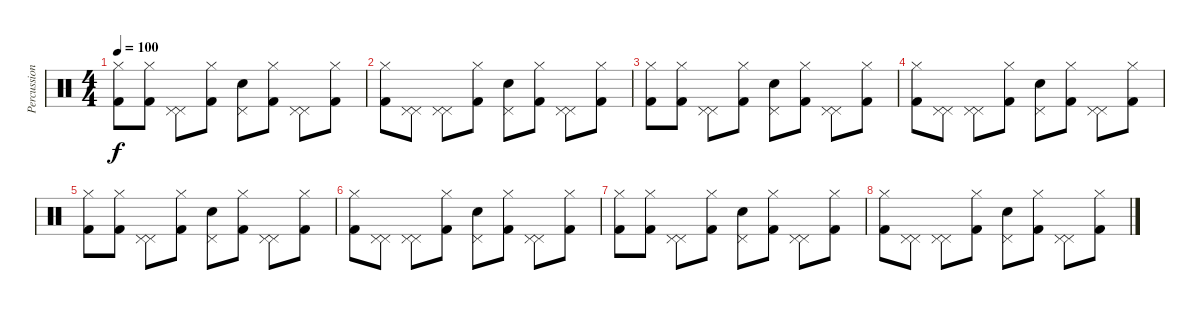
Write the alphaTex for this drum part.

\track ("Percussion" "Percussion") {instrument percussion}
\staff {score}
\articulation defaults
\ts (4 4)
\tempo 100
\clef neutral
\ks c
("Hi-Hat (closed)" "Kick (hit) 2").8{dy f} ("Hi-Hat (closed)" "Kick (hit) 2").8 ("Pedal Hi-Hat (hit)" "Pedal Hi-Hat (hit)").8 ("Hi-Hat (closed)" "Kick (hit) 2").8 ("Snare (hit) 2" "Pedal Hi-Hat (hit)").8 ("Hi-Hat (closed)" "Kick (hit) 2").8 ("Pedal Hi-Hat (hit)" "Pedal Hi-Hat (hit)").8 ("Hi-Hat (closed)" "Kick (hit) 2").8 |
("Hi-Hat (closed)" "Kick (hit) 2").8 ("Pedal Hi-Hat (hit)" "Pedal Hi-Hat (hit)").8 ("Pedal Hi-Hat (hit)" "Pedal Hi-Hat (hit)").8 ("Hi-Hat (closed)" "Kick (hit) 2").8 ("Snare (hit) 2" "Pedal Hi-Hat (hit)").8 ("Hi-Hat (closed)" "Kick (hit) 2").8 ("Pedal Hi-Hat (hit)" "Pedal Hi-Hat (hit)").8 ("Hi-Hat (closed)" "Kick (hit) 2").8 |
("Hi-Hat (closed)" "Kick (hit) 2").8 ("Hi-Hat (closed)" "Kick (hit) 2").8 ("Pedal Hi-Hat (hit)" "Pedal Hi-Hat (hit)").8 ("Hi-Hat (closed)" "Kick (hit) 2").8 ("Snare (hit) 2" "Pedal Hi-Hat (hit)").8 ("Hi-Hat (closed)" "Kick (hit) 2").8 ("Pedal Hi-Hat (hit)" "Pedal Hi-Hat (hit)").8 ("Hi-Hat (closed)" "Kick (hit) 2").8 |
("Hi-Hat (closed)" "Kick (hit) 2").8 ("Pedal Hi-Hat (hit)" "Pedal Hi-Hat (hit)").8 ("Pedal Hi-Hat (hit)" "Pedal Hi-Hat (hit)").8 ("Hi-Hat (closed)" "Kick (hit) 2").8 ("Snare (hit) 2" "Pedal Hi-Hat (hit)").8 ("Hi-Hat (closed)" "Kick (hit) 2").8 ("Pedal Hi-Hat (hit)" "Pedal Hi-Hat (hit)").8 ("Hi-Hat (closed)" "Kick (hit) 2").8 |
("Hi-Hat (closed)" "Kick (hit) 2").8{volume 11} ("Hi-Hat (closed)" "Kick (hit) 2").8 ("Pedal Hi-Hat (hit)" "Pedal Hi-Hat (hit)").8 ("Hi-Hat (closed)" "Kick (hit) 2").8 ("Snare (hit) 2" "Pedal Hi-Hat (hit)").8 ("Hi-Hat (closed)" "Kick (hit) 2").8 ("Pedal Hi-Hat (hit)" "Pedal Hi-Hat (hit)").8 ("Hi-Hat (closed)" "Kick (hit) 2").8 |
("Hi-Hat (closed)" "Kick (hit) 2").8 ("Pedal Hi-Hat (hit)" "Pedal Hi-Hat (hit)").8 ("Pedal Hi-Hat (hit)" "Pedal Hi-Hat (hit)").8 ("Hi-Hat (closed)" "Kick (hit) 2").8 ("Snare (hit) 2" "Pedal Hi-Hat (hit)").8 ("Hi-Hat (closed)" "Kick (hit) 2").8 ("Pedal Hi-Hat (hit)" "Pedal Hi-Hat (hit)").8 ("Hi-Hat (closed)" "Kick (hit) 2").8 |
("Hi-Hat (closed)" "Kick (hit) 2").8{volume 0} ("Hi-Hat (closed)" "Kick (hit) 2").8 ("Pedal Hi-Hat (hit)" "Pedal Hi-Hat (hit)").8 ("Hi-Hat (closed)" "Kick (hit) 2").8 ("Snare (hit) 2" "Pedal Hi-Hat (hit)").8 ("Hi-Hat (closed)" "Kick (hit) 2").8 ("Pedal Hi-Hat (hit)" "Pedal Hi-Hat (hit)").8 ("Hi-Hat (closed)" "Kick (hit) 2").8 |
("Hi-Hat (closed)" "Kick (hit) 2").8 ("Pedal Hi-Hat (hit)" "Pedal Hi-Hat (hit)").8 ("Pedal Hi-Hat (hit)" "Pedal Hi-Hat (hit)").8 ("Hi-Hat (closed)" "Kick (hit) 2").8 ("Snare (hit) 2" "Pedal Hi-Hat (hit)").8 ("Hi-Hat (closed)" "Kick (hit) 2").8 ("Pedal Hi-Hat (hit)" "Pedal Hi-Hat (hit)").8 ("Hi-Hat (closed)" "Kick (hit) 2").8
